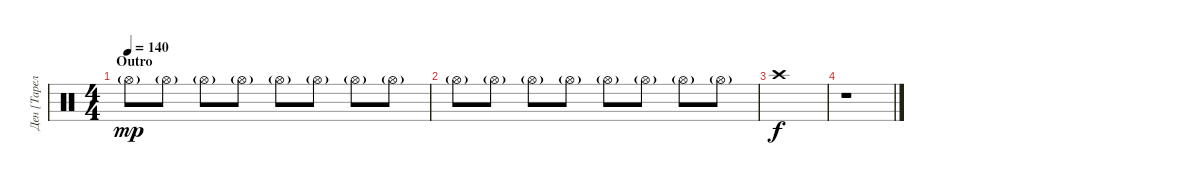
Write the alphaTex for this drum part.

\track ("Ден [Тарелки]" "Ден [Тарел") {instrument percussion}
\staff {score}
\articulation defaults
\ts (4 4)
\section ("" "Outro")
\tempo 140
\clef neutral
\ks c "Hi-Hat (open)"{g}.8{dy mp} "Hi-Hat (open)"{g}.8 "Hi-Hat (open)"{g}.8 "Hi-Hat (open)"{g}.8 "Hi-Hat (open)"{g}.8 "Hi-Hat (open)"{g}.8 "Hi-Hat (open)"{g}.8 "Hi-Hat (open)"{g}.8
|
"Hi-Hat (open)"{g}.8 "Hi-Hat (open)"{g}.8 "Hi-Hat (open)"{g}.8 "Hi-Hat (open)"{g}.8 "Hi-Hat (open)"{g}.8 "Hi-Hat (open)"{g}.8 "Hi-Hat (open)"{g}.8 "Hi-Hat (open)"{g}.8 |
"Crash high (hit)".1{dy f} |
r.1
